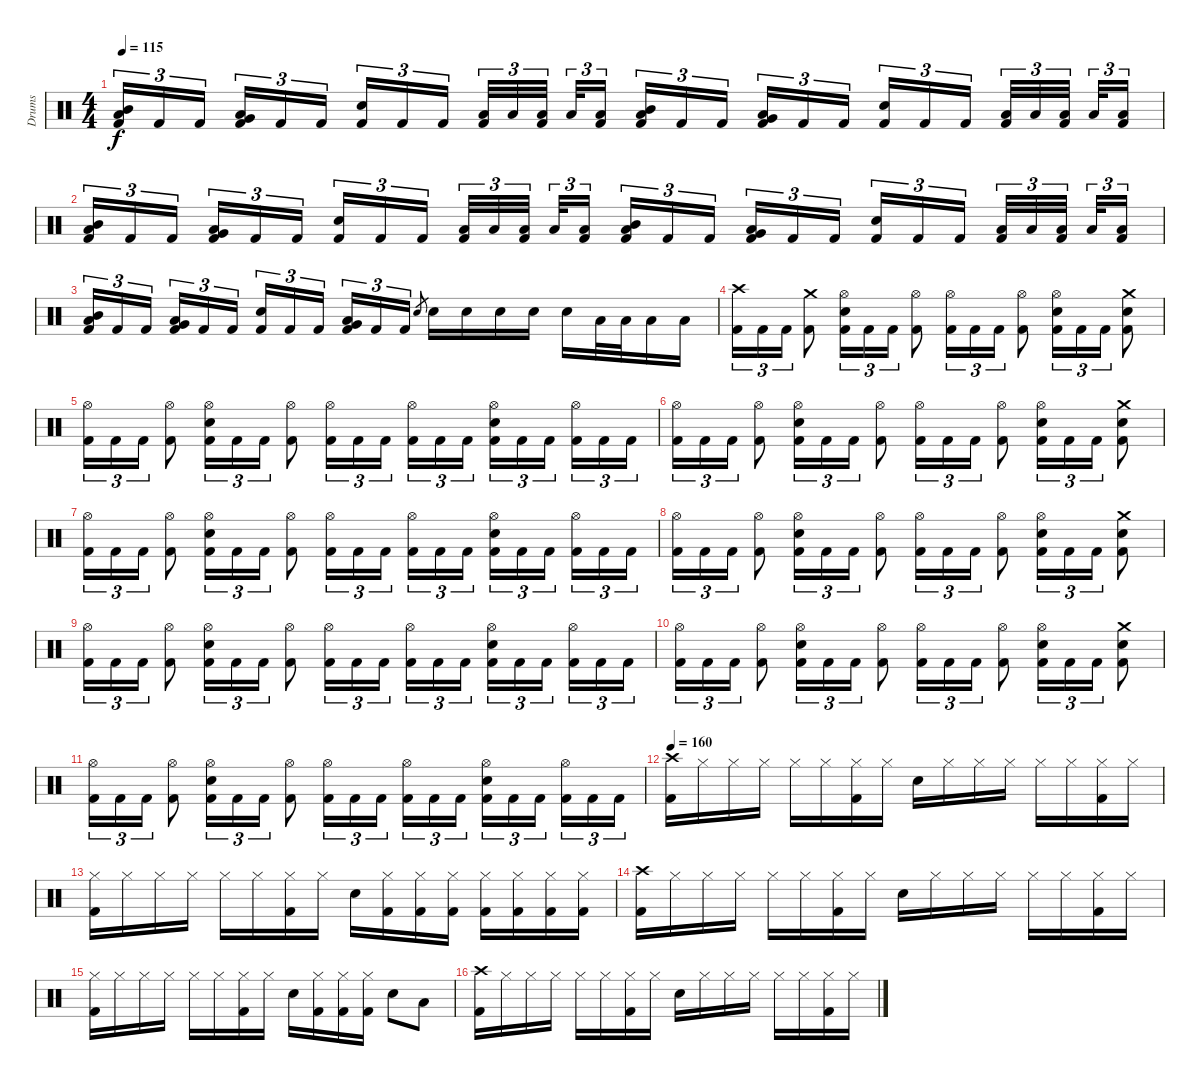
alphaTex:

\track ("Drums" "Drums") {instrument percussion}
\staff {score}
\articulation defaults
\ts (4 4)
\tempo 115
\clef neutral
\ks c
("Mid Tom (hit)" "Low Tom (hit)" "Kick (hit) 2").16{tu (3 2) dy f} "Kick (hit) 2".16{tu (3 2)} "Kick (hit) 2".16{tu (3 2) beam splitsecondary} ("Low Tom (hit)" "Very Low Tom (hit)" "Kick (hit) 2").16{tu (3 2)} "Kick (hit) 2".16{tu (3 2)} "Kick (hit) 2".16{tu (3 2)} ("Electric Snare (hit)" "Kick (hit) 2").16{tu (3 2)} "Kick (hit) 2".16{tu (3 2)} "Kick (hit) 2".16{tu (3 2) beam splitsecondary} ("Low Tom (hit)" "Kick (hit) 2").32{tu (3 2)} "Low Tom (hit)".32{tu (3 2)} ("Low Tom (hit)" "Kick (hit) 2").32{tu (3 2) beam splitsecondary} "Low Tom (hit)".32{tu (3 2)} ("Low Tom (hit)" "Kick (hit) 2").16{tu (3 2)} ("Mid Tom (hit)" "Low Tom (hit)" "Kick (hit) 2").16{tu (3 2)} "Kick (hit) 2".16{tu (3 2)} "Kick (hit) 2".16{tu (3 2) beam splitsecondary} ("Low Tom (hit)" "Very Low Tom (hit)" "Kick (hit) 2").16{tu (3 2)} "Kick (hit) 2".16{tu (3 2)} "Kick (hit) 2".16{tu (3 2)} ("Electric Snare (hit)" "Kick (hit) 2").16{tu (3 2)} "Kick (hit) 2".16{tu (3 2)} "Kick (hit) 2".16{tu (3 2) beam splitsecondary} ("Low Tom (hit)" "Kick (hit) 2").32{tu (3 2)} "Low Tom (hit)".32{tu (3 2)} ("Low Tom (hit)" "Kick (hit) 2").32{tu (3 2) beam splitsecondary} "Low Tom (hit)".32{tu (3 2)} ("Low Tom (hit)" "Kick (hit) 2").16{tu (3 2)} |
("Mid Tom (hit)" "Low Tom (hit)" "Kick (hit) 2").16{tu (3 2)} "Kick (hit) 2".16{tu (3 2)} "Kick (hit) 2".16{tu (3 2) beam splitsecondary} ("Low Tom (hit)" "Very Low Tom (hit)" "Kick (hit) 2").16{tu (3 2)} "Kick (hit) 2".16{tu (3 2)} "Kick (hit) 2".16{tu (3 2)} ("Electric Snare (hit)" "Kick (hit) 2").16{tu (3 2)} "Kick (hit) 2".16{tu (3 2)} "Kick (hit) 2".16{tu (3 2) beam splitsecondary} ("Low Tom (hit)" "Kick (hit) 2").32{tu (3 2)} "Low Tom (hit)".32{tu (3 2)} ("Low Tom (hit)" "Kick (hit) 2").32{tu (3 2) beam splitsecondary} "Low Tom (hit)".32{tu (3 2)} ("Low Tom (hit)" "Kick (hit) 2").16{tu (3 2)} ("Mid Tom (hit)" "Low Tom (hit)" "Kick (hit) 2").16{tu (3 2)} "Kick (hit) 2".16{tu (3 2)} "Kick (hit) 2".16{tu (3 2) beam splitsecondary} ("Low Tom (hit)" "Very Low Tom (hit)" "Kick (hit) 2").16{tu (3 2)} "Kick (hit) 2".16{tu (3 2)} "Kick (hit) 2".16{tu (3 2)} ("Electric Snare (hit)" "Kick (hit) 2").16{tu (3 2)} "Kick (hit) 2".16{tu (3 2)} "Kick (hit) 2".16{tu (3 2) beam splitsecondary} ("Low Tom (hit)" "Kick (hit) 2").32{tu (3 2)} "Low Tom (hit)".32{tu (3 2)} ("Low Tom (hit)" "Kick (hit) 2").32{tu (3 2) beam splitsecondary} "Low Tom (hit)".32{tu (3 2)} ("Low Tom (hit)" "Kick (hit) 2").16{tu (3 2)} |
("Mid Tom (hit)" "Low Tom (hit)" "Kick (hit) 2").16{tu (3 2)} "Kick (hit) 2".16{tu (3 2)} "Kick (hit) 2".16{tu (3 2) beam splitsecondary} ("Low Tom (hit)" "Very Low Tom (hit)" "Kick (hit) 2").16{tu (3 2)} "Kick (hit) 2".16{tu (3 2)} "Kick (hit) 2".16{tu (3 2)} ("Electric Snare (hit)" "Kick (hit) 2").16{tu (3 2)} "Kick (hit) 2".16{tu (3 2)} "Kick (hit) 2".16{tu (3 2) beam splitsecondary} ("Low Tom (hit)" "Very Low Tom (hit)" "Kick (hit) 2").16{tu (3 2)} "Kick (hit) 2".16{tu (3 2)} "Kick (hit) 2".16{tu (3 2)} "Electric Snare (hit)".8{gr} "Electric Snare (hit)".16 "Electric Snare (hit)".16 "Electric Snare (hit)".16 "Electric Snare (hit)".16 "Electric Snare (hit)".16 "Low Tom (hit)".32 "Low Tom (hit)".32 "Low Tom (hit)".16 "Low Tom (hit)".16 |
("Crash high (hit)" "Kick (hit) 2").16{tu (3 2)} "Kick (hit) 2".16{tu (3 2)} "Kick (hit) 2".16{tu (3 2)} ("Crash medium (hit)" "Kick (hit) 2").8 ("Hi-Hat (open)" "Electric Snare (hit)" "Kick (hit) 2").16{tu (3 2)} "Kick (hit) 2".16{tu (3 2)} "Kick (hit) 2".16{tu (3 2)} ("Hi-Hat (open)" "Kick (hit) 2").8 ("Hi-Hat (open)" "Kick (hit) 2").16{tu (3 2)} "Kick (hit) 2".16{tu (3 2)} "Kick (hit) 2".16{tu (3 2)} ("Hi-Hat (open)" "Kick (hit) 2").8 ("Hi-Hat (open)" "Electric Snare (hit)" "Kick (hit) 2").16{tu (3 2)} "Kick (hit) 2".16{tu (3 2)} "Kick (hit) 2".16{tu (3 2)} ("Crash medium (hit)" "Electric Snare (hit)" "Kick (hit) 2").8 |
("Hi-Hat (open)" "Kick (hit) 2").16{tu (3 2)} "Kick (hit) 2".16{tu (3 2)} "Kick (hit) 2".16{tu (3 2)} ("Hi-Hat (open)" "Kick (hit) 2").8 ("Hi-Hat (open)" "Electric Snare (hit)" "Kick (hit) 2").16{tu (3 2)} "Kick (hit) 2".16{tu (3 2)} "Kick (hit) 2".16{tu (3 2)} ("Hi-Hat (open)" "Kick (hit) 2").8 ("Hi-Hat (open)" "Kick (hit) 2").16{tu (3 2)} "Kick (hit) 2".16{tu (3 2)} "Kick (hit) 2".16{tu (3 2) beam splitsecondary} ("Hi-Hat (open)" "Kick (hit) 2").16{tu (3 2)} "Kick (hit) 2".16{tu (3 2)} "Kick (hit) 2".16{tu (3 2)} ("Hi-Hat (open)" "Electric Snare (hit)" "Kick (hit) 2").16{tu (3 2)} "Kick (hit) 2".16{tu (3 2)} "Kick (hit) 2".16{tu (3 2) beam splitsecondary} ("Hi-Hat (open)" "Kick (hit) 2").16{tu (3 2)} "Kick (hit) 2".16{tu (3 2)} "Kick (hit) 2".16{tu (3 2)} |
("Hi-Hat (open)" "Kick (hit) 2").16{tu (3 2)} "Kick (hit) 2".16{tu (3 2)} "Kick (hit) 2".16{tu (3 2)} ("Hi-Hat (open)" "Kick (hit) 2").8 ("Hi-Hat (open)" "Electric Snare (hit)" "Kick (hit) 2").16{tu (3 2)} "Kick (hit) 2".16{tu (3 2)} "Kick (hit) 2".16{tu (3 2)} ("Hi-Hat (open)" "Kick (hit) 2").8 ("Hi-Hat (open)" "Kick (hit) 2").16{tu (3 2)} "Kick (hit) 2".16{tu (3 2)} "Kick (hit) 2".16{tu (3 2)} ("Hi-Hat (open)" "Kick (hit) 2").8 ("Hi-Hat (open)" "Electric Snare (hit)" "Kick (hit) 2").16{tu (3 2)} "Kick (hit) 2".16{tu (3 2)} "Kick (hit) 2".16{tu (3 2)} ("Crash medium (hit)" "Electric Snare (hit)" "Kick (hit) 2").8 |
("Hi-Hat (open)" "Kick (hit) 2").16{tu (3 2)} "Kick (hit) 2".16{tu (3 2)} "Kick (hit) 2".16{tu (3 2)} ("Hi-Hat (open)" "Kick (hit) 2").8 ("Hi-Hat (open)" "Electric Snare (hit)" "Kick (hit) 2").16{tu (3 2)} "Kick (hit) 2".16{tu (3 2)} "Kick (hit) 2".16{tu (3 2)} ("Hi-Hat (open)" "Kick (hit) 2").8 ("Hi-Hat (open)" "Kick (hit) 2").16{tu (3 2)} "Kick (hit) 2".16{tu (3 2)} "Kick (hit) 2".16{tu (3 2) beam splitsecondary} ("Hi-Hat (open)" "Kick (hit) 2").16{tu (3 2)} "Kick (hit) 2".16{tu (3 2)} "Kick (hit) 2".16{tu (3 2)} ("Hi-Hat (open)" "Electric Snare (hit)" "Kick (hit) 2").16{tu (3 2)} "Kick (hit) 2".16{tu (3 2)} "Kick (hit) 2".16{tu (3 2) beam splitsecondary} ("Hi-Hat (open)" "Kick (hit) 2").16{tu (3 2)} "Kick (hit) 2".16{tu (3 2)} "Kick (hit) 2".16{tu (3 2)} |
("Hi-Hat (open)" "Kick (hit) 2").16{tu (3 2)} "Kick (hit) 2".16{tu (3 2)} "Kick (hit) 2".16{tu (3 2)} ("Hi-Hat (open)" "Kick (hit) 2").8 ("Hi-Hat (open)" "Electric Snare (hit)" "Kick (hit) 2").16{tu (3 2)} "Kick (hit) 2".16{tu (3 2)} "Kick (hit) 2".16{tu (3 2)} ("Hi-Hat (open)" "Kick (hit) 2").8 ("Hi-Hat (open)" "Kick (hit) 2").16{tu (3 2)} "Kick (hit) 2".16{tu (3 2)} "Kick (hit) 2".16{tu (3 2)} ("Hi-Hat (open)" "Kick (hit) 2").8 ("Hi-Hat (open)" "Electric Snare (hit)" "Kick (hit) 2").16{tu (3 2)} "Kick (hit) 2".16{tu (3 2)} "Kick (hit) 2".16{tu (3 2)} ("Crash medium (hit)" "Electric Snare (hit)" "Kick (hit) 2").8 |
("Hi-Hat (open)" "Kick (hit) 2").16{tu (3 2)} "Kick (hit) 2".16{tu (3 2)} "Kick (hit) 2".16{tu (3 2)} ("Hi-Hat (open)" "Kick (hit) 2").8 ("Hi-Hat (open)" "Electric Snare (hit)" "Kick (hit) 2").16{tu (3 2)} "Kick (hit) 2".16{tu (3 2)} "Kick (hit) 2".16{tu (3 2)} ("Hi-Hat (open)" "Kick (hit) 2").8 ("Hi-Hat (open)" "Kick (hit) 2").16{tu (3 2)} "Kick (hit) 2".16{tu (3 2)} "Kick (hit) 2".16{tu (3 2) beam splitsecondary} ("Hi-Hat (open)" "Kick (hit) 2").16{tu (3 2)} "Kick (hit) 2".16{tu (3 2)} "Kick (hit) 2".16{tu (3 2)} ("Hi-Hat (open)" "Electric Snare (hit)" "Kick (hit) 2").16{tu (3 2)} "Kick (hit) 2".16{tu (3 2)} "Kick (hit) 2".16{tu (3 2) beam splitsecondary} ("Hi-Hat (open)" "Kick (hit) 2").16{tu (3 2)} "Kick (hit) 2".16{tu (3 2)} "Kick (hit) 2".16{tu (3 2)} |
("Hi-Hat (open)" "Kick (hit) 2").16{tu (3 2)} "Kick (hit) 2".16{tu (3 2)} "Kick (hit) 2".16{tu (3 2)} ("Hi-Hat (open)" "Kick (hit) 2").8 ("Hi-Hat (open)" "Electric Snare (hit)" "Kick (hit) 2").16{tu (3 2)} "Kick (hit) 2".16{tu (3 2)} "Kick (hit) 2".16{tu (3 2)} ("Hi-Hat (open)" "Kick (hit) 2").8 ("Hi-Hat (open)" "Kick (hit) 2").16{tu (3 2)} "Kick (hit) 2".16{tu (3 2)} "Kick (hit) 2".16{tu (3 2)} ("Hi-Hat (open)" "Kick (hit) 2").8 ("Hi-Hat (open)" "Electric Snare (hit)" "Kick (hit) 2").16{tu (3 2)} "Kick (hit) 2".16{tu (3 2)} "Kick (hit) 2".16{tu (3 2)} ("Crash medium (hit)" "Electric Snare (hit)" "Kick (hit) 2").8 |
("Hi-Hat (open)" "Kick (hit) 2").16{tu (3 2)} "Kick (hit) 2".16{tu (3 2)} "Kick (hit) 2".16{tu (3 2)} ("Hi-Hat (open)" "Kick (hit) 2").8 ("Hi-Hat (open)" "Electric Snare (hit)" "Kick (hit) 2").16{tu (3 2)} "Kick (hit) 2".16{tu (3 2)} "Kick (hit) 2".16{tu (3 2)} ("Hi-Hat (open)" "Kick (hit) 2").8 ("Hi-Hat (open)" "Kick (hit) 2").16{tu (3 2)} "Kick (hit) 2".16{tu (3 2)} "Kick (hit) 2".16{tu (3 2) beam splitsecondary} ("Hi-Hat (open)" "Kick (hit) 2").16{tu (3 2)} "Kick (hit) 2".16{tu (3 2)} "Kick (hit) 2".16{tu (3 2)} ("Hi-Hat (open)" "Electric Snare (hit)" "Kick (hit) 2").16{tu (3 2)} "Kick (hit) 2".16{tu (3 2)} "Kick (hit) 2".16{tu (3 2) beam splitsecondary} ("Hi-Hat (open)" "Kick (hit) 2").16{tu (3 2)} "Kick (hit) 2".16{tu (3 2)} "Kick (hit) 2".16{tu (3 2)} |
\tempo 160
("Crash high (hit)" "Kick (hit) 2").16 "Hi-Hat (closed)".16 "Hi-Hat (closed)".16 "Hi-Hat (closed)".16 "Hi-Hat (closed)".16 "Hi-Hat (closed)".16 ("Hi-Hat (closed)" "Kick (hit) 2").16 "Hi-Hat (closed)".16 "Electric Snare (hit)".16 "Hi-Hat (closed)".16 "Hi-Hat (closed)".16 "Hi-Hat (closed)".16 "Hi-Hat (closed)".16 "Hi-Hat (closed)".16 ("Hi-Hat (closed)" "Kick (hit) 2").16 "Hi-Hat (closed)".16 |
("Hi-Hat (closed)" "Kick (hit) 2").16 "Hi-Hat (closed)".16 "Hi-Hat (closed)".16 "Hi-Hat (closed)".16 "Hi-Hat (closed)".16 "Hi-Hat (closed)".16 ("Hi-Hat (closed)" "Kick (hit) 2").16 "Hi-Hat (closed)".16 "Electric Snare (hit)".16 ("Hi-Hat (closed)" "Kick (hit) 2").16 ("Hi-Hat (closed)" "Kick (hit) 2").16 ("Hi-Hat (closed)" "Kick (hit) 2").16 ("Hi-Hat (closed)" "Kick (hit) 2").16 ("Hi-Hat (closed)" "Kick (hit) 2").16 ("Hi-Hat (closed)" "Kick (hit) 2").16 ("Hi-Hat (closed)" "Kick (hit) 2").16 |
("Crash high (hit)" "Kick (hit) 2").16 "Hi-Hat (closed)".16 "Hi-Hat (closed)".16 "Hi-Hat (closed)".16 "Hi-Hat (closed)".16 "Hi-Hat (closed)".16 ("Hi-Hat (closed)" "Kick (hit) 2").16 "Hi-Hat (closed)".16 "Electric Snare (hit)".16 "Hi-Hat (closed)".16 "Hi-Hat (closed)".16 "Hi-Hat (closed)".16 "Hi-Hat (closed)".16 "Hi-Hat (closed)".16 ("Hi-Hat (closed)" "Kick (hit) 2").16 "Hi-Hat (closed)".16 |
("Hi-Hat (closed)" "Kick (hit) 2").16 "Hi-Hat (closed)".16 "Hi-Hat (closed)".16 "Hi-Hat (closed)".16 "Hi-Hat (closed)".16 "Hi-Hat (closed)".16 ("Hi-Hat (closed)" "Kick (hit) 2").16 "Hi-Hat (closed)".16 "Electric Snare (hit)".16 ("Hi-Hat (closed)" "Kick (hit) 2").16 ("Hi-Hat (closed)" "Kick (hit) 2").16 ("Hi-Hat (closed)" "Kick (hit) 2").16 "Electric Snare (hit)".8 "Low Tom (hit)".8 |
("Crash high (hit)" "Kick (hit) 2").16 "Hi-Hat (closed)".16 "Hi-Hat (closed)".16 "Hi-Hat (closed)".16 "Hi-Hat (closed)".16 "Hi-Hat (closed)".16 ("Hi-Hat (closed)" "Kick (hit) 2").16 "Hi-Hat (closed)".16 "Electric Snare (hit)".16 "Hi-Hat (closed)".16 "Hi-Hat (closed)".16 "Hi-Hat (closed)".16 "Hi-Hat (closed)".16 "Hi-Hat (closed)".16 ("Hi-Hat (closed)" "Kick (hit) 2").16 "Hi-Hat (closed)".16
